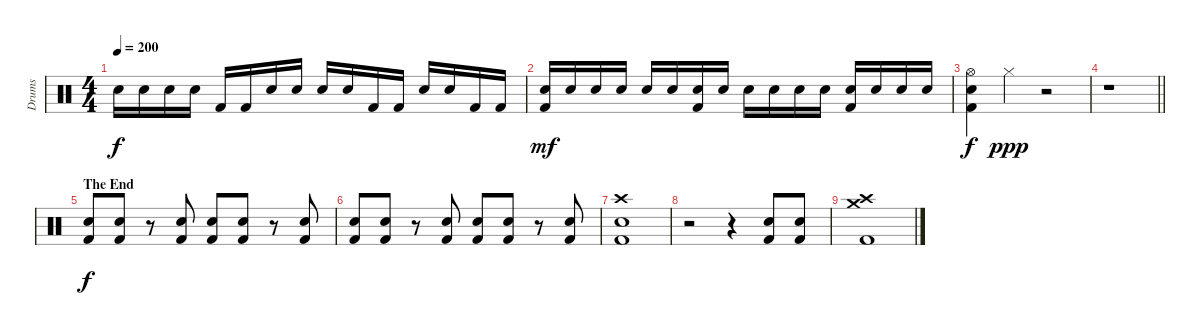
\track ("Drums" "Drums") {instrument percussion}
\staff {score}
\articulation defaults
\ts (4 4)
\tempo 200
\clef neutral
\ks c "Snare (hit) 2".16{dy f} "Snare (hit) 2".16 "Snare (hit) 2".16 "Snare (hit) 2".16 "Kick (hit) 2".16 "Kick (hit) 2".16 "Snare (hit) 2".16 "Snare (hit) 2".16 "Snare (hit) 2".16 "Snare (hit) 2".16 "Kick (hit) 2".16 "Kick (hit) 2".16 "Snare (hit) 2".16 "Snare (hit) 2".16 "Kick (hit) 2".16 "Kick (hit) 2".16
|
("Kick (hit) 2" "Snare (hit) 2").16{dy mf} "Snare (hit) 2".16 "Snare (hit) 2".16 "Snare (hit) 2".16 "Snare (hit) 2".16 "Snare (hit) 2".16 ("Kick (hit) 2" "Snare (hit) 2").16 "Snare (hit) 2".16 "Snare (hit) 2".16 "Snare (hit) 2".16 "Snare (hit) 2".16 "Snare (hit) 2".16 ("Kick (hit) 2" "Snare (hit) 2").16 "Snare (hit) 2".16 "Snare (hit) 2".16 "Snare (hit) 2".16 |
("Kick (hit) 2" "Snare (hit) 2" "Hi-Hat (open)").4{dy f} "Hi-Hat (closed)".4{dy ppp} r.2 |
\barLineRight lightlight
r.1 |
\section ("" "The End")
("Kick (hit) 2" "Snare (hit) 2").8{dy f} ("Kick (hit) 2" "Snare (hit) 2").8 r.8 ("Kick (hit) 2" "Snare (hit) 2").8 ("Kick (hit) 2" "Snare (hit) 2").8 ("Kick (hit) 2" "Snare (hit) 2").8 r.8 ("Kick (hit) 2" "Snare (hit) 2").8 |
("Kick (hit) 2" "Snare (hit) 2").8 ("Kick (hit) 2" "Snare (hit) 2").8 r.8 ("Kick (hit) 2" "Snare (hit) 2").8 ("Kick (hit) 2" "Snare (hit) 2").8 ("Kick (hit) 2" "Snare (hit) 2").8 r.8 ("Kick (hit) 2" "Snare (hit) 2").8 |
("Kick (hit) 2" "Snare (hit) 2" "Crash high (hit)").1 |
r.2 r.4 ("Kick (hit) 2" "Snare (hit) 2").8 ("Kick (hit) 2" "Snare (hit) 2").8 |
("Kick (hit) 2" "Crash high (hit)" "Crash medium (hit)").1
